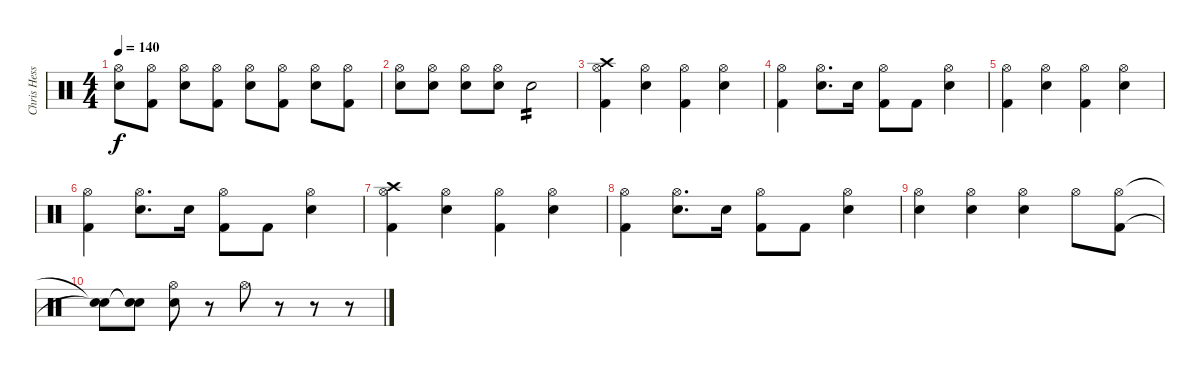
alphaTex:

\track ("Chris Hesse" "Chris Hess") {instrument percussion}
\staff {score}
\articulation defaults
\ts (4 4)
\tempo 140
\clef neutral
\ks c
("Electric Snare (hit)" "Hi-Hat (open)").8{dy f} ("Kick (hit) 2" "Hi-Hat (open)").8 ("Electric Snare (hit)" "Hi-Hat (open)").8 ("Kick (hit) 2" "Hi-Hat (open)").8 ("Electric Snare (hit)" "Hi-Hat (open)").8 ("Kick (hit) 2" "Hi-Hat (open)").8 ("Electric Snare (hit)" "Hi-Hat (open)").8 ("Kick (hit) 2" "Hi-Hat (open)").8 |
("Electric Snare (hit)" "Hi-Hat (open)").8 ("Electric Snare (hit)" "Hi-Hat (open)").8 ("Electric Snare (hit)" "Hi-Hat (open)").8 ("Electric Snare (hit)" "Hi-Hat (open)").8 "Electric Snare (hit)".2{tp 2} |
("Kick (hit) 2" "Hi-Hat (open)" "Crash high (hit)").4 ("Electric Snare (hit)" "Hi-Hat (open)").4 ("Kick (hit) 2" "Hi-Hat (open)").4 ("Electric Snare (hit)" "Hi-Hat (open)").4 |
("Kick (hit) 2" "Hi-Hat (open)").4 ("Electric Snare (hit)" "Hi-Hat (open)").8{d} "Electric Snare (hit)".16 ("Kick (hit) 2" "Hi-Hat (open)").8 "Kick (hit) 2".8 ("Electric Snare (hit)" "Hi-Hat (open)").4 |
("Kick (hit) 2" "Hi-Hat (open)").4 ("Electric Snare (hit)" "Hi-Hat (open)").4 ("Kick (hit) 2" "Hi-Hat (open)").4 ("Electric Snare (hit)" "Hi-Hat (open)").4 |
("Kick (hit) 2" "Hi-Hat (open)").4 ("Electric Snare (hit)" "Hi-Hat (open)").8{d} "Electric Snare (hit)".16 ("Kick (hit) 2" "Hi-Hat (open)").8 "Kick (hit) 2".8 ("Electric Snare (hit)" "Hi-Hat (open)").4 |
("Kick (hit) 2" "Hi-Hat (open)" "Crash high (hit)").4 ("Electric Snare (hit)" "Hi-Hat (open)").4 ("Kick (hit) 2" "Hi-Hat (open)").4 ("Electric Snare (hit)" "Hi-Hat (open)").4 |
("Kick (hit) 2" "Hi-Hat (open)").4 ("Electric Snare (hit)" "Hi-Hat (open)").8{d} "Electric Snare (hit)".16 ("Kick (hit) 2" "Hi-Hat (open)").8 "Kick (hit) 2".8 ("Electric Snare (hit)" "Hi-Hat (open)").4 |
("Electric Snare (hit)" "Hi-Hat (open)").4 ("Electric Snare (hit)" "Hi-Hat (open)").4 ("Electric Snare (hit)" "Hi-Hat (open)").4 "Hi-Hat (open)".8 ("Kick (hit) 2" "Hi-Hat (open)").8 |
("Electric Snare (hit)"{t} "Snare (hit)"{t}).8 ("Snare (hit)"{t} "Snare (hit)"{t}).8 ("Electric Snare (hit)" "Hi-Hat (open)").8 r.8 "Hi-Hat (open)".8 r.8 r.8 r.8
